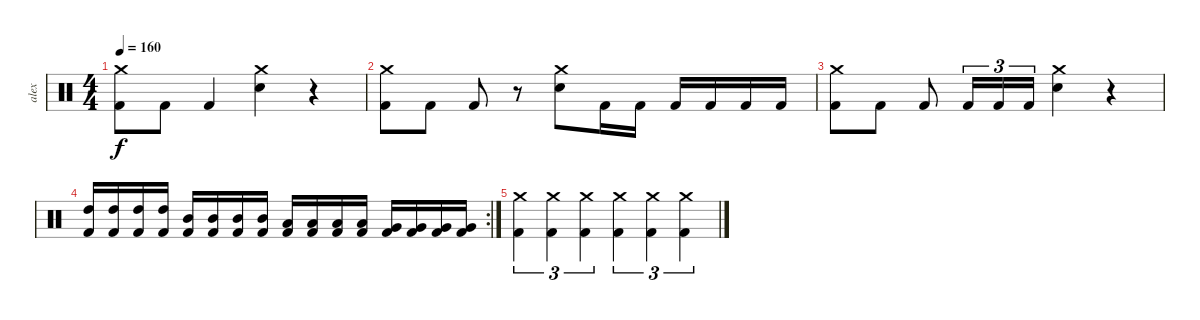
\track ("alex" "alex") {instrument percussion}
\staff {score}
\articulation defaults
\ts (4 4)
\tempo 160
\clef neutral
\ks c
("Crash medium (hit)" "Kick (hit) 2").8{dy f} "Kick (hit) 2".8 "Kick (hit) 2".4 ("Crash medium (hit)" "Electric Snare (hit)").4 r.4 |
("Crash medium (hit)" "Kick (hit) 2").8 "Kick (hit) 2".8 "Kick (hit) 2".8 r.8 ("Electric Snare (hit)" "Crash medium (hit)").8 "Kick (hit) 2".16 "Kick (hit) 2".16 "Kick (hit) 2".16 "Kick (hit) 2".16 "Kick (hit) 2".16 "Kick (hit) 2".16 |
("Crash medium (hit)" "Kick (hit) 2").8 "Kick (hit) 2".8 "Kick (hit) 2".8 "Kick (hit) 2".16{tu (3 2)} "Kick (hit) 2".16{tu (3 2)} "Kick (hit) 2".16{tu (3 2)} ("Crash medium (hit)" "Electric Snare (hit)").4 r.4 |
\rc 2
("High Tom (hit)" "Kick (hit) 2").16 ("High Tom (hit)" "Kick (hit) 2").16 ("High Tom (hit)" "Kick (hit) 2").16 ("High Tom (hit)" "Kick (hit) 2").16 ("Mid Tom (hit)" "Kick (hit) 2").16 ("Mid Tom (hit)" "Kick (hit) 2").16 ("Mid Tom (hit)" "Kick (hit) 2").16 ("Mid Tom (hit)" "Kick (hit) 2").16 ("Low Tom (hit)" "Kick (hit) 2").16 ("Low Tom (hit)" "Kick (hit) 2").16 ("Low Tom (hit)" "Kick (hit) 2").16 ("Low Tom (hit)" "Kick (hit) 2").16 ("Very Low Tom (hit)" "Kick (hit) 2").16 ("Very Low Tom (hit)" "Kick (hit) 2").16 ("Very Low Tom (hit)" "Kick (hit) 2").16 ("Very Low Tom (hit)" "Kick (hit) 2").16 |
("Crash medium (hit)" "Kick (hit) 2").4{tu (3 2)} ("Crash medium (hit)" "Kick (hit) 2").4{tu (3 2)} ("Crash medium (hit)" "Kick (hit) 2").4{tu (3 2)} ("Crash medium (hit)" "Kick (hit) 2").4{tu (3 2)} ("Crash medium (hit)" "Kick (hit) 2").4{tu (3 2)} ("Crash medium (hit)" "Kick (hit) 2").4{tu (3 2)}
